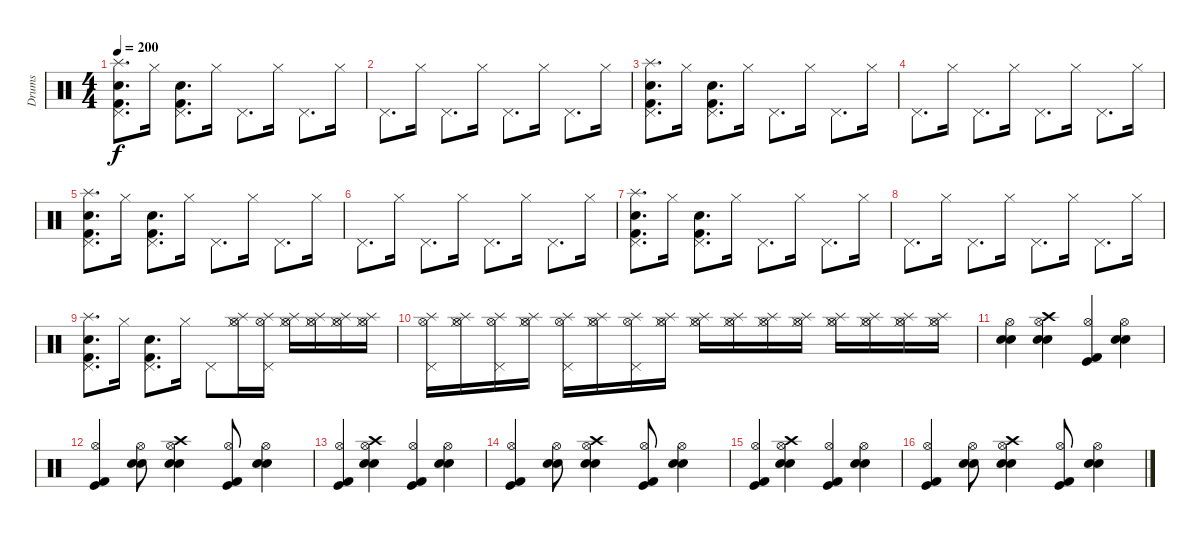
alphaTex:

\track ("Drums" "Drums") {instrument percussion}
\staff {score}
\articulation defaults
\ts (4 4)
\tempo 200
\clef neutral
\ks c
("Pedal Hi-Hat (hit)" "Splash (hit)" "Snare (hit) 2" "Kick (hit) 2").8{d dy f} "Hi-Hat (closed)".16 ("Pedal Hi-Hat (hit)" "Snare (hit) 2" "Kick (hit) 2").8{d} "Hi-Hat (closed)".16 "Pedal Hi-Hat (hit)".8{d} "Hi-Hat (closed)".16 "Pedal Hi-Hat (hit)".8{d} "Hi-Hat (closed)".16 |
"Pedal Hi-Hat (hit)".8{d} "Hi-Hat (closed)".16 "Pedal Hi-Hat (hit)".8{d} "Hi-Hat (closed)".16 "Pedal Hi-Hat (hit)".8{d} "Hi-Hat (closed)".16 "Pedal Hi-Hat (hit)".8{d} "Hi-Hat (closed)".16 |
("Pedal Hi-Hat (hit)" "Splash (hit)" "Snare (hit) 2" "Kick (hit) 2").8{d} "Hi-Hat (closed)".16 ("Pedal Hi-Hat (hit)" "Snare (hit) 2" "Kick (hit) 2").8{d} "Hi-Hat (closed)".16 "Pedal Hi-Hat (hit)".8{d} "Hi-Hat (closed)".16 "Pedal Hi-Hat (hit)".8{d} "Hi-Hat (closed)".16 |
"Pedal Hi-Hat (hit)".8{d} "Hi-Hat (closed)".16 "Pedal Hi-Hat (hit)".8{d} "Hi-Hat (closed)".16 "Pedal Hi-Hat (hit)".8{d} "Hi-Hat (closed)".16 "Pedal Hi-Hat (hit)".8{d} "Hi-Hat (closed)".16 |
("Pedal Hi-Hat (hit)" "Splash (hit)" "Snare (hit) 2" "Kick (hit) 2").8{d} "Hi-Hat (closed)".16 ("Pedal Hi-Hat (hit)" "Snare (hit) 2" "Kick (hit) 2").8{d} "Hi-Hat (closed)".16 "Pedal Hi-Hat (hit)".8{d} "Hi-Hat (closed)".16 "Pedal Hi-Hat (hit)".8{d} "Hi-Hat (closed)".16 |
"Pedal Hi-Hat (hit)".8{d} "Hi-Hat (closed)".16 "Pedal Hi-Hat (hit)".8{d} "Hi-Hat (closed)".16 "Pedal Hi-Hat (hit)".8{d} "Hi-Hat (closed)".16 "Pedal Hi-Hat (hit)".8{d} "Hi-Hat (closed)".16 |
("Pedal Hi-Hat (hit)" "Splash (hit)" "Snare (hit) 2" "Kick (hit) 2").8{d} "Hi-Hat (closed)".16 ("Pedal Hi-Hat (hit)" "Snare (hit) 2" "Kick (hit) 2").8{d} "Hi-Hat (closed)".16 "Pedal Hi-Hat (hit)".8{d} "Hi-Hat (closed)".16 "Pedal Hi-Hat (hit)".8{d} "Hi-Hat (closed)".16 |
"Pedal Hi-Hat (hit)".8{d} "Hi-Hat (closed)".16 "Pedal Hi-Hat (hit)".8{d} "Hi-Hat (closed)".16 "Pedal Hi-Hat (hit)".8{d} "Hi-Hat (closed)".16 "Pedal Hi-Hat (hit)".8{d} "Hi-Hat (closed)".16 |
("Pedal Hi-Hat (hit)" "Splash (hit)" "Snare (hit) 2" "Kick (hit) 2").8{d} "Hi-Hat (closed)".16 ("Pedal Hi-Hat (hit)" "Snare (hit) 2" "Kick (hit) 2").8{d} "Hi-Hat (closed)".16 "Pedal Hi-Hat (hit)".8 ("Hi-Hat (closed)" "Splash (hit)" "Hi-Hat (open)").16{volume 16} ("Pedal Hi-Hat (hit)" "Splash (hit)" "Hi-Hat (open)").16 ("Hi-Hat (closed)" "Splash (hit)" "Hi-Hat (open)").16 ("Hi-Hat (closed)" "Splash (hit)" "Hi-Hat (open)").16 ("Hi-Hat (closed)" "Splash (hit)" "Hi-Hat (open)").16 ("Hi-Hat (closed)" "Splash (hit)" "Hi-Hat (open)").16 |
("Pedal Hi-Hat (hit)" "Splash (hit)" "Hi-Hat (open)").16 ("Hi-Hat (closed)" "Splash (hit)" "Hi-Hat (open)").16 ("Pedal Hi-Hat (hit)" "Splash (hit)" "Hi-Hat (open)").16 ("Hi-Hat (closed)" "Splash (hit)" "Hi-Hat (open)").16 ("Pedal Hi-Hat (hit)" "Splash (hit)" "Hi-Hat (open)").16 ("Hi-Hat (closed)" "Splash (hit)" "Hi-Hat (open)").16 ("Pedal Hi-Hat (hit)" "Splash (hit)" "Hi-Hat (open)").16 ("Hi-Hat (closed)" "Splash (hit)" "Hi-Hat (open)").16 ("Hi-Hat (closed)" "Splash (hit)" "Hi-Hat (open)").16 ("Hi-Hat (closed)" "Splash (hit)" "Hi-Hat (open)").16 ("Hi-Hat (closed)" "Splash (hit)" "Hi-Hat (open)").16 ("Hi-Hat (closed)" "Splash (hit)" "Hi-Hat (open)").16 ("Hi-Hat (closed)" "Splash (hit)" "Hi-Hat (open)").16 ("Hi-Hat (closed)" "Splash (hit)" "Hi-Hat (open)").16 ("Hi-Hat (closed)" "Splash (hit)" "Hi-Hat (open)").16 ("Hi-Hat (closed)" "Splash (hit)" "Hi-Hat (open)").16 |
("Hi-Hat (open)" "Snare (hit) 2" "Electric Snare (hit)").4 ("Hi-Hat (open)" "Crash high (hit)" "Snare (hit) 2" "Electric Snare (hit)").4 ("Hi-Hat (open)" "Kick (hit)" "Kick (hit) 2").4 ("Hi-Hat (open)" "Snare (hit) 2" "Electric Snare (hit)").4 |
("Hi-Hat (open)" "Kick (hit)" "Kick (hit) 2").4 ("Hi-Hat (open)" "Snare (hit) 2" "Electric Snare (hit)").8 ("Hi-Hat (open)" "Crash high (hit)" "Snare (hit) 2" "Electric Snare (hit)").4 ("Hi-Hat (open)" "Kick (hit)" "Kick (hit) 2").8 ("Hi-Hat (open)" "Snare (hit) 2" "Electric Snare (hit)").4 |
("Hi-Hat (open)" "Kick (hit)" "Kick (hit) 2").4 ("Hi-Hat (open)" "Crash high (hit)" "Snare (hit) 2" "Electric Snare (hit)").4 ("Hi-Hat (open)" "Kick (hit)" "Kick (hit) 2").4 ("Hi-Hat (open)" "Snare (hit) 2" "Electric Snare (hit)").4 |
("Hi-Hat (open)" "Kick (hit)" "Kick (hit) 2").4 ("Hi-Hat (open)" "Snare (hit) 2" "Electric Snare (hit)").8 ("Hi-Hat (open)" "Crash high (hit)" "Snare (hit) 2" "Electric Snare (hit)").4 ("Hi-Hat (open)" "Kick (hit)" "Kick (hit) 2").8 ("Hi-Hat (open)" "Snare (hit) 2" "Electric Snare (hit)").4 |
("Hi-Hat (open)" "Kick (hit)" "Kick (hit) 2").4 ("Hi-Hat (open)" "Crash high (hit)" "Snare (hit) 2" "Electric Snare (hit)").4 ("Hi-Hat (open)" "Kick (hit)" "Kick (hit) 2").4 ("Hi-Hat (open)" "Snare (hit) 2" "Electric Snare (hit)").4 |
("Hi-Hat (open)" "Kick (hit)" "Kick (hit) 2").4 ("Hi-Hat (open)" "Snare (hit) 2" "Electric Snare (hit)").8 ("Hi-Hat (open)" "Crash high (hit)" "Snare (hit) 2" "Electric Snare (hit)").4 ("Hi-Hat (open)" "Kick (hit)" "Kick (hit) 2").8 ("Hi-Hat (open)" "Snare (hit) 2" "Electric Snare (hit)").4
